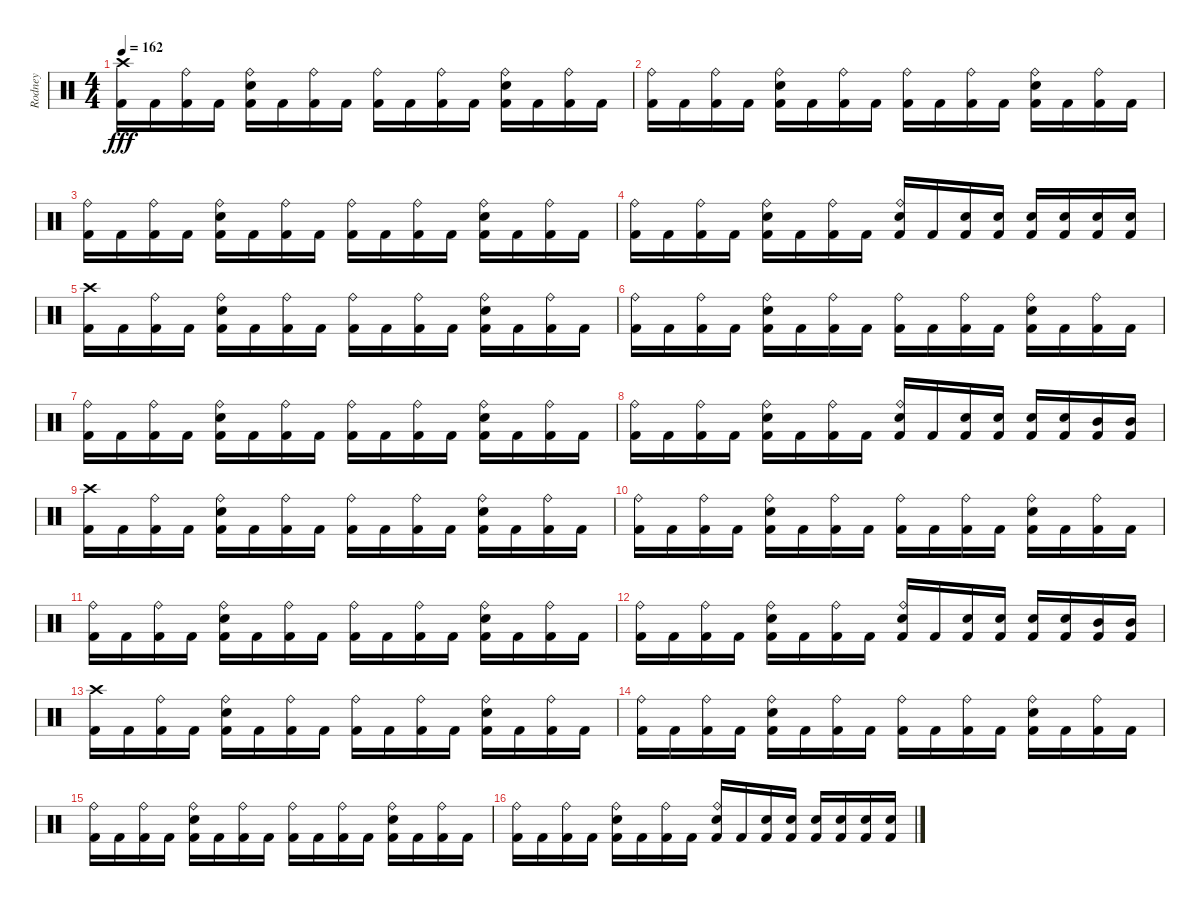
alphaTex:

\track ("Rodney" "Rodney") {instrument percussion}
\staff {score}
\articulation defaults
\ts (4 4)
\tempo 162
\clef neutral
\ks c
("Crash high (hit)" "Kick (hit) 2").16{dy fff volume 13} "Kick (hit) 2".16 ("Ride (bell)" "Kick (hit) 2").16 "Kick (hit) 2".16 ("Ride (bell)" "Snare (hit) 2" "Kick (hit) 2").16 "Kick (hit) 2".16 ("Ride (bell)" "Kick (hit) 2").16 "Kick (hit) 2".16 ("Ride (bell)" "Kick (hit) 2").16 "Kick (hit) 2".16 ("Ride (bell)" "Kick (hit) 2").16 "Kick (hit) 2".16 ("Ride (bell)" "Snare (hit) 2" "Kick (hit) 2").16 "Kick (hit) 2".16 ("Ride (bell)" "Kick (hit) 2").16 "Kick (hit) 2".16 |
("Ride (bell)" "Kick (hit) 2").16 "Kick (hit) 2".16 ("Ride (bell)" "Kick (hit) 2").16 "Kick (hit) 2".16 ("Ride (bell)" "Snare (hit) 2" "Kick (hit) 2").16 "Kick (hit) 2".16 ("Ride (bell)" "Kick (hit) 2").16 "Kick (hit) 2".16 ("Ride (bell)" "Kick (hit) 2").16 "Kick (hit) 2".16 ("Ride (bell)" "Kick (hit) 2").16 "Kick (hit) 2".16 ("Ride (bell)" "Snare (hit) 2" "Kick (hit) 2").16 "Kick (hit) 2".16 ("Ride (bell)" "Kick (hit) 2").16 "Kick (hit) 2".16 |
("Ride (bell)" "Kick (hit) 2").16 "Kick (hit) 2".16 ("Ride (bell)" "Kick (hit) 2").16 "Kick (hit) 2".16 ("Ride (bell)" "Snare (hit) 2" "Kick (hit) 2").16 "Kick (hit) 2".16 ("Ride (bell)" "Kick (hit) 2").16 "Kick (hit) 2".16 ("Ride (bell)" "Kick (hit) 2").16 "Kick (hit) 2".16 ("Ride (bell)" "Kick (hit) 2").16 "Kick (hit) 2".16 ("Ride (bell)" "Snare (hit) 2" "Kick (hit) 2").16 "Kick (hit) 2".16 ("Ride (bell)" "Kick (hit) 2").16 "Kick (hit) 2".16 |
("Ride (bell)" "Kick (hit) 2").16 "Kick (hit) 2".16 ("Ride (bell)" "Kick (hit) 2").16 "Kick (hit) 2".16 ("Ride (bell)" "Snare (hit) 2" "Kick (hit) 2").16 "Kick (hit) 2".16 ("Ride (bell)" "Kick (hit) 2").16 "Kick (hit) 2".16 ("Ride (bell)" "Snare (hit) 2" "Kick (hit) 2").16 "Kick (hit) 2".16 ("Snare (hit) 2" "Kick (hit) 2").16 ("Snare (hit) 2" "Kick (hit) 2").16 ("Snare (hit) 2" "Kick (hit) 2").16 ("Snare (hit) 2" "Kick (hit) 2").16 ("Snare (hit) 2" "Kick (hit) 2").16 ("Snare (hit) 2" "Kick (hit) 2").16 |
("Crash high (hit)" "Kick (hit) 2").16{volume 10} "Kick (hit) 2".16 ("Ride (bell)" "Kick (hit) 2").16 "Kick (hit) 2".16 ("Ride (bell)" "Snare (hit) 2" "Kick (hit) 2").16 "Kick (hit) 2".16 ("Ride (bell)" "Kick (hit) 2").16 "Kick (hit) 2".16 ("Ride (bell)" "Kick (hit) 2").16 "Kick (hit) 2".16 ("Ride (bell)" "Kick (hit) 2").16 "Kick (hit) 2".16 ("Ride (bell)" "Snare (hit) 2" "Kick (hit) 2").16 "Kick (hit) 2".16 ("Ride (bell)" "Kick (hit) 2").16 "Kick (hit) 2".16 |
("Ride (bell)" "Kick (hit) 2").16 "Kick (hit) 2".16 ("Ride (bell)" "Kick (hit) 2").16 "Kick (hit) 2".16 ("Ride (bell)" "Snare (hit) 2" "Kick (hit) 2").16 "Kick (hit) 2".16 ("Ride (bell)" "Kick (hit) 2").16 "Kick (hit) 2".16 ("Ride (bell)" "Kick (hit) 2").16 "Kick (hit) 2".16 ("Ride (bell)" "Kick (hit) 2").16 "Kick (hit) 2".16 ("Ride (bell)" "Snare (hit) 2" "Kick (hit) 2").16 "Kick (hit) 2".16 ("Ride (bell)" "Kick (hit) 2").16 "Kick (hit) 2".16 |
("Ride (bell)" "Kick (hit) 2").16 "Kick (hit) 2".16 ("Ride (bell)" "Kick (hit) 2").16 "Kick (hit) 2".16 ("Ride (bell)" "Snare (hit) 2" "Kick (hit) 2").16 "Kick (hit) 2".16 ("Ride (bell)" "Kick (hit) 2").16 "Kick (hit) 2".16 ("Ride (bell)" "Kick (hit) 2").16 "Kick (hit) 2".16 ("Ride (bell)" "Kick (hit) 2").16 "Kick (hit) 2".16 ("Ride (bell)" "Snare (hit) 2" "Kick (hit) 2").16 "Kick (hit) 2".16 ("Ride (bell)" "Kick (hit) 2").16 "Kick (hit) 2".16 |
("Ride (bell)" "Kick (hit) 2").16 "Kick (hit) 2".16 ("Ride (bell)" "Kick (hit) 2").16 "Kick (hit) 2".16 ("Ride (bell)" "Snare (hit) 2" "Kick (hit) 2").16 "Kick (hit) 2".16 ("Ride (bell)" "Kick (hit) 2").16 "Kick (hit) 2".16 ("Ride (bell)" "Snare (hit) 2" "Kick (hit) 2").16 "Kick (hit) 2".16 ("Snare (hit) 2" "Kick (hit) 2").16 ("Snare (hit) 2" "Kick (hit) 2").16 ("Snare (hit) 2" "Kick (hit) 2").16 ("Snare (hit) 2" "Kick (hit) 2").16 ("Mid Tom (hit)" "Kick (hit) 2").16 ("Mid Tom (hit)" "Kick (hit) 2").16 |
("Crash high (hit)" "Kick (hit) 2").16{volume 7} "Kick (hit) 2".16 ("Ride (bell)" "Kick (hit) 2").16 "Kick (hit) 2".16 ("Ride (bell)" "Snare (hit) 2" "Kick (hit) 2").16 "Kick (hit) 2".16 ("Ride (bell)" "Kick (hit) 2").16 "Kick (hit) 2".16 ("Ride (bell)" "Kick (hit) 2").16 "Kick (hit) 2".16 ("Ride (bell)" "Kick (hit) 2").16 "Kick (hit) 2".16 ("Ride (bell)" "Snare (hit) 2" "Kick (hit) 2").16 "Kick (hit) 2".16 ("Ride (bell)" "Kick (hit) 2").16 "Kick (hit) 2".16 |
("Ride (bell)" "Kick (hit) 2").16 "Kick (hit) 2".16 ("Ride (bell)" "Kick (hit) 2").16 "Kick (hit) 2".16 ("Ride (bell)" "Snare (hit) 2" "Kick (hit) 2").16 "Kick (hit) 2".16 ("Ride (bell)" "Kick (hit) 2").16 "Kick (hit) 2".16 ("Ride (bell)" "Kick (hit) 2").16 "Kick (hit) 2".16 ("Ride (bell)" "Kick (hit) 2").16 "Kick (hit) 2".16 ("Ride (bell)" "Snare (hit) 2" "Kick (hit) 2").16 "Kick (hit) 2".16 ("Ride (bell)" "Kick (hit) 2").16 "Kick (hit) 2".16 |
("Ride (bell)" "Kick (hit) 2").16 "Kick (hit) 2".16 ("Ride (bell)" "Kick (hit) 2").16 "Kick (hit) 2".16 ("Ride (bell)" "Snare (hit) 2" "Kick (hit) 2").16 "Kick (hit) 2".16 ("Ride (bell)" "Kick (hit) 2").16 "Kick (hit) 2".16 ("Ride (bell)" "Kick (hit) 2").16 "Kick (hit) 2".16 ("Ride (bell)" "Kick (hit) 2").16 "Kick (hit) 2".16 ("Ride (bell)" "Snare (hit) 2" "Kick (hit) 2").16 "Kick (hit) 2".16 ("Ride (bell)" "Kick (hit) 2").16 "Kick (hit) 2".16 |
("Ride (bell)" "Kick (hit) 2").16 "Kick (hit) 2".16 ("Ride (bell)" "Kick (hit) 2").16 "Kick (hit) 2".16 ("Ride (bell)" "Snare (hit) 2" "Kick (hit) 2").16 "Kick (hit) 2".16 ("Ride (bell)" "Kick (hit) 2").16 "Kick (hit) 2".16 ("Ride (bell)" "Snare (hit) 2" "Kick (hit) 2").16 "Kick (hit) 2".16 ("Snare (hit) 2" "Kick (hit) 2").16 ("Snare (hit) 2" "Kick (hit) 2").16 ("Snare (hit) 2" "Kick (hit) 2").16 ("Snare (hit) 2" "Kick (hit) 2").16 ("Mid Tom (hit)" "Kick (hit) 2").16 ("Mid Tom (hit)" "Kick (hit) 2").16 |
("Crash high (hit)" "Kick (hit) 2").16{volume 4} "Kick (hit) 2".16 ("Ride (bell)" "Kick (hit) 2").16 "Kick (hit) 2".16 ("Ride (bell)" "Snare (hit) 2" "Kick (hit) 2").16 "Kick (hit) 2".16 ("Ride (bell)" "Kick (hit) 2").16 "Kick (hit) 2".16 ("Ride (bell)" "Kick (hit) 2").16 "Kick (hit) 2".16 ("Ride (bell)" "Kick (hit) 2").16 "Kick (hit) 2".16 ("Ride (bell)" "Snare (hit) 2" "Kick (hit) 2").16 "Kick (hit) 2".16 ("Ride (bell)" "Kick (hit) 2").16 "Kick (hit) 2".16 |
("Ride (bell)" "Kick (hit) 2").16 "Kick (hit) 2".16 ("Ride (bell)" "Kick (hit) 2").16 "Kick (hit) 2".16 ("Ride (bell)" "Snare (hit) 2" "Kick (hit) 2").16 "Kick (hit) 2".16 ("Ride (bell)" "Kick (hit) 2").16 "Kick (hit) 2".16 ("Ride (bell)" "Kick (hit) 2").16 "Kick (hit) 2".16 ("Ride (bell)" "Kick (hit) 2").16 "Kick (hit) 2".16 ("Ride (bell)" "Snare (hit) 2" "Kick (hit) 2").16 "Kick (hit) 2".16 ("Ride (bell)" "Kick (hit) 2").16 "Kick (hit) 2".16 |
("Ride (bell)" "Kick (hit) 2").16 "Kick (hit) 2".16 ("Ride (bell)" "Kick (hit) 2").16 "Kick (hit) 2".16 ("Ride (bell)" "Snare (hit) 2" "Kick (hit) 2").16 "Kick (hit) 2".16 ("Ride (bell)" "Kick (hit) 2").16 "Kick (hit) 2".16 ("Ride (bell)" "Kick (hit) 2").16 "Kick (hit) 2".16 ("Ride (bell)" "Kick (hit) 2").16 "Kick (hit) 2".16 ("Ride (bell)" "Snare (hit) 2" "Kick (hit) 2").16 "Kick (hit) 2".16 ("Ride (bell)" "Kick (hit) 2").16 "Kick (hit) 2".16 |
("Ride (bell)" "Kick (hit) 2").16 "Kick (hit) 2".16 ("Ride (bell)" "Kick (hit) 2").16 "Kick (hit) 2".16 ("Ride (bell)" "Snare (hit) 2" "Kick (hit) 2").16 "Kick (hit) 2".16 ("Ride (bell)" "Kick (hit) 2").16 "Kick (hit) 2".16 ("Ride (bell)" "Snare (hit) 2" "Kick (hit) 2").16 "Kick (hit) 2".16 ("Snare (hit) 2" "Kick (hit) 2").16 ("Snare (hit) 2" "Kick (hit) 2").16 ("Snare (hit) 2" "Kick (hit) 2").16 ("Snare (hit) 2" "Kick (hit) 2").16 ("Snare (hit) 2" "Kick (hit) 2").16 ("Snare (hit) 2" "Kick (hit) 2").16
